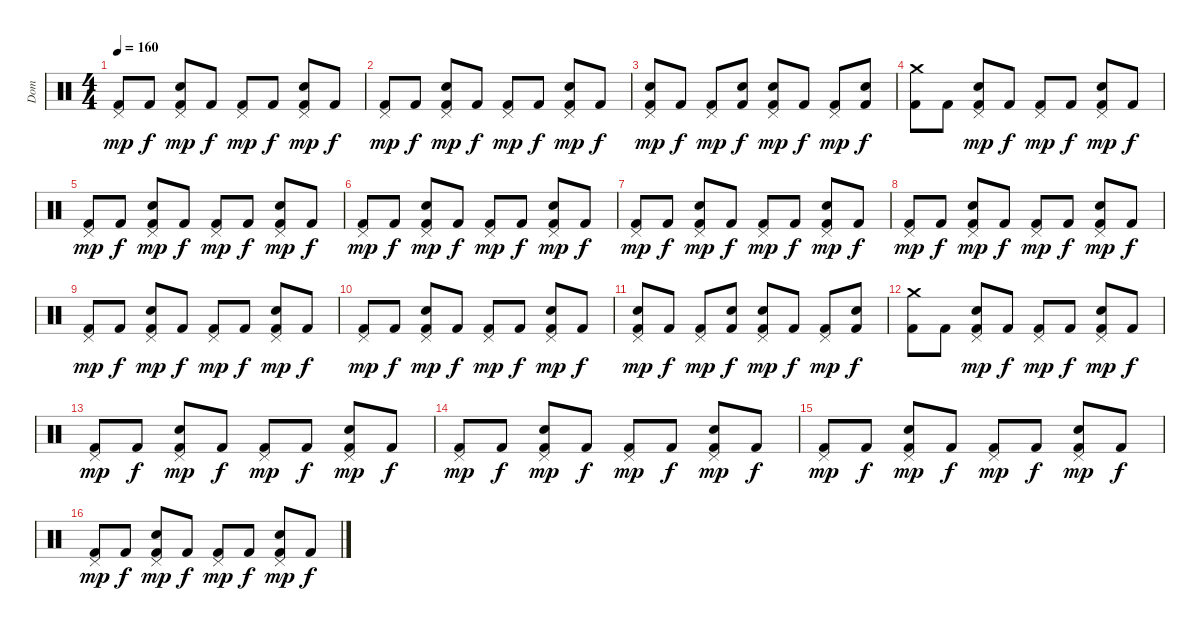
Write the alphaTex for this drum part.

\track ("Dom" "Dom") {instrument percussion}
\staff {score}
\articulation defaults
\ts (4 4)
\tempo 160
\clef neutral
\ks c
("Pedal Hi-Hat (hit)" "Kick (hit) 2").8{dy mp} "Kick (hit) 2".8{dy f} ("Pedal Hi-Hat (hit)" "Snare (hit) 2" "Kick (hit) 2").8{dy mp} "Kick (hit) 2".8{dy f} ("Pedal Hi-Hat (hit)" "Kick (hit) 2").8{dy mp} "Kick (hit) 2".8{dy f} ("Pedal Hi-Hat (hit)" "Snare (hit) 2" "Kick (hit) 2").8{dy mp} "Kick (hit) 2".8{dy f} |
("Pedal Hi-Hat (hit)" "Kick (hit) 2").8{dy mp} "Kick (hit) 2".8{dy f} ("Pedal Hi-Hat (hit)" "Snare (hit) 2" "Kick (hit) 2").8{dy mp} "Kick (hit) 2".8{dy f} ("Pedal Hi-Hat (hit)" "Kick (hit) 2").8{dy mp} "Kick (hit) 2".8{dy f} ("Pedal Hi-Hat (hit)" "Snare (hit) 2" "Kick (hit) 2").8{dy mp} "Kick (hit) 2".8{dy f} |
("Pedal Hi-Hat (hit)" "Snare (hit) 2" "Kick (hit) 2").8{dy mp} "Kick (hit) 2".8{dy f} ("Pedal Hi-Hat (hit)" "Kick (hit) 2").8{dy mp} ("Snare (hit) 2" "Kick (hit) 2").8{dy f} ("Pedal Hi-Hat (hit)" "Snare (hit) 2" "Kick (hit) 2").8{dy mp} "Kick (hit) 2".8{dy f} ("Pedal Hi-Hat (hit)" "Kick (hit) 2").8{dy mp} ("Snare (hit) 2" "Kick (hit) 2").8{dy f} |
("Crash medium (hit)" "Kick (hit) 2").8 "Kick (hit) 2".8 ("Pedal Hi-Hat (hit)" "Snare (hit) 2" "Kick (hit) 2").8{dy mp} "Kick (hit) 2".8{dy f} ("Pedal Hi-Hat (hit)" "Kick (hit) 2").8{dy mp} "Kick (hit) 2".8{dy f} ("Pedal Hi-Hat (hit)" "Snare (hit) 2" "Kick (hit) 2").8{dy mp} "Kick (hit) 2".8{dy f} |
("Pedal Hi-Hat (hit)" "Kick (hit) 2").8{dy mp} "Kick (hit) 2".8{dy f} ("Pedal Hi-Hat (hit)" "Snare (hit) 2" "Kick (hit) 2").8{dy mp} "Kick (hit) 2".8{dy f} ("Pedal Hi-Hat (hit)" "Kick (hit) 2").8{dy mp} "Kick (hit) 2".8{dy f} ("Pedal Hi-Hat (hit)" "Snare (hit) 2" "Kick (hit) 2").8{dy mp} "Kick (hit) 2".8{dy f} |
("Pedal Hi-Hat (hit)" "Kick (hit) 2").8{dy mp} "Kick (hit) 2".8{dy f} ("Pedal Hi-Hat (hit)" "Snare (hit) 2" "Kick (hit) 2").8{dy mp} "Kick (hit) 2".8{dy f} ("Pedal Hi-Hat (hit)" "Kick (hit) 2").8{dy mp} "Kick (hit) 2".8{dy f} ("Pedal Hi-Hat (hit)" "Snare (hit) 2" "Kick (hit) 2").8{dy mp} "Kick (hit) 2".8{dy f} |
("Pedal Hi-Hat (hit)" "Kick (hit) 2").8{dy mp} "Kick (hit) 2".8{dy f} ("Pedal Hi-Hat (hit)" "Snare (hit) 2" "Kick (hit) 2").8{dy mp} "Kick (hit) 2".8{dy f} ("Pedal Hi-Hat (hit)" "Kick (hit) 2").8{dy mp} "Kick (hit) 2".8{dy f} ("Pedal Hi-Hat (hit)" "Snare (hit) 2" "Kick (hit) 2").8{dy mp} "Kick (hit) 2".8{dy f} |
("Pedal Hi-Hat (hit)" "Kick (hit) 2").8{dy mp} "Kick (hit) 2".8{dy f} ("Pedal Hi-Hat (hit)" "Snare (hit) 2" "Kick (hit) 2").8{dy mp} "Kick (hit) 2".8{dy f} ("Pedal Hi-Hat (hit)" "Kick (hit) 2").8{dy mp} "Kick (hit) 2".8{dy f} ("Pedal Hi-Hat (hit)" "Snare (hit) 2" "Kick (hit) 2").8{dy mp} "Kick (hit) 2".8{dy f} |
("Pedal Hi-Hat (hit)" "Kick (hit) 2").8{dy mp} "Kick (hit) 2".8{dy f} ("Pedal Hi-Hat (hit)" "Snare (hit) 2" "Kick (hit) 2").8{dy mp} "Kick (hit) 2".8{dy f} ("Pedal Hi-Hat (hit)" "Kick (hit) 2").8{dy mp} "Kick (hit) 2".8{dy f} ("Pedal Hi-Hat (hit)" "Snare (hit) 2" "Kick (hit) 2").8{dy mp} "Kick (hit) 2".8{dy f} |
("Pedal Hi-Hat (hit)" "Kick (hit) 2").8{dy mp} "Kick (hit) 2".8{dy f} ("Pedal Hi-Hat (hit)" "Snare (hit) 2" "Kick (hit) 2").8{dy mp} "Kick (hit) 2".8{dy f} ("Pedal Hi-Hat (hit)" "Kick (hit) 2").8{dy mp} "Kick (hit) 2".8{dy f} ("Pedal Hi-Hat (hit)" "Snare (hit) 2" "Kick (hit) 2").8{dy mp} "Kick (hit) 2".8{dy f} |
("Pedal Hi-Hat (hit)" "Snare (hit) 2" "Kick (hit) 2").8{dy mp} "Kick (hit) 2".8{dy f} ("Pedal Hi-Hat (hit)" "Kick (hit) 2").8{dy mp} ("Snare (hit) 2" "Kick (hit) 2").8{dy f} ("Pedal Hi-Hat (hit)" "Snare (hit) 2" "Kick (hit) 2").8{dy mp} "Kick (hit) 2".8{dy f} ("Pedal Hi-Hat (hit)" "Kick (hit) 2").8{dy mp} ("Snare (hit) 2" "Kick (hit) 2").8{dy f} |
("Crash medium (hit)" "Kick (hit) 2").8 "Kick (hit) 2".8 ("Pedal Hi-Hat (hit)" "Snare (hit) 2" "Kick (hit) 2").8{dy mp} "Kick (hit) 2".8{dy f} ("Pedal Hi-Hat (hit)" "Kick (hit) 2").8{dy mp} "Kick (hit) 2".8{dy f} ("Pedal Hi-Hat (hit)" "Snare (hit) 2" "Kick (hit) 2").8{dy mp} "Kick (hit) 2".8{dy f} |
("Pedal Hi-Hat (hit)" "Kick (hit) 2").8{dy mp} "Kick (hit) 2".8{dy f} ("Pedal Hi-Hat (hit)" "Snare (hit) 2" "Kick (hit) 2").8{dy mp} "Kick (hit) 2".8{dy f} ("Pedal Hi-Hat (hit)" "Kick (hit) 2").8{dy mp} "Kick (hit) 2".8{dy f} ("Pedal Hi-Hat (hit)" "Snare (hit) 2" "Kick (hit) 2").8{dy mp} "Kick (hit) 2".8{dy f} |
("Pedal Hi-Hat (hit)" "Kick (hit) 2").8{dy mp} "Kick (hit) 2".8{dy f} ("Pedal Hi-Hat (hit)" "Snare (hit) 2" "Kick (hit) 2").8{dy mp} "Kick (hit) 2".8{dy f} ("Pedal Hi-Hat (hit)" "Kick (hit) 2").8{dy mp} "Kick (hit) 2".8{dy f} ("Pedal Hi-Hat (hit)" "Snare (hit) 2" "Kick (hit) 2").8{dy mp} "Kick (hit) 2".8{dy f} |
("Pedal Hi-Hat (hit)" "Kick (hit) 2").8{dy mp} "Kick (hit) 2".8{dy f} ("Pedal Hi-Hat (hit)" "Snare (hit) 2" "Kick (hit) 2").8{dy mp} "Kick (hit) 2".8{dy f} ("Pedal Hi-Hat (hit)" "Kick (hit) 2").8{dy mp} "Kick (hit) 2".8{dy f} ("Pedal Hi-Hat (hit)" "Snare (hit) 2" "Kick (hit) 2").8{dy mp} "Kick (hit) 2".8{dy f} |
("Pedal Hi-Hat (hit)" "Kick (hit) 2").8{dy mp} "Kick (hit) 2".8{dy f} ("Pedal Hi-Hat (hit)" "Snare (hit) 2" "Kick (hit) 2").8{dy mp} "Kick (hit) 2".8{dy f} ("Pedal Hi-Hat (hit)" "Kick (hit) 2").8{dy mp} "Kick (hit) 2".8{dy f} ("Pedal Hi-Hat (hit)" "Snare (hit) 2" "Kick (hit) 2").8{dy mp} "Kick (hit) 2".8{dy f}
